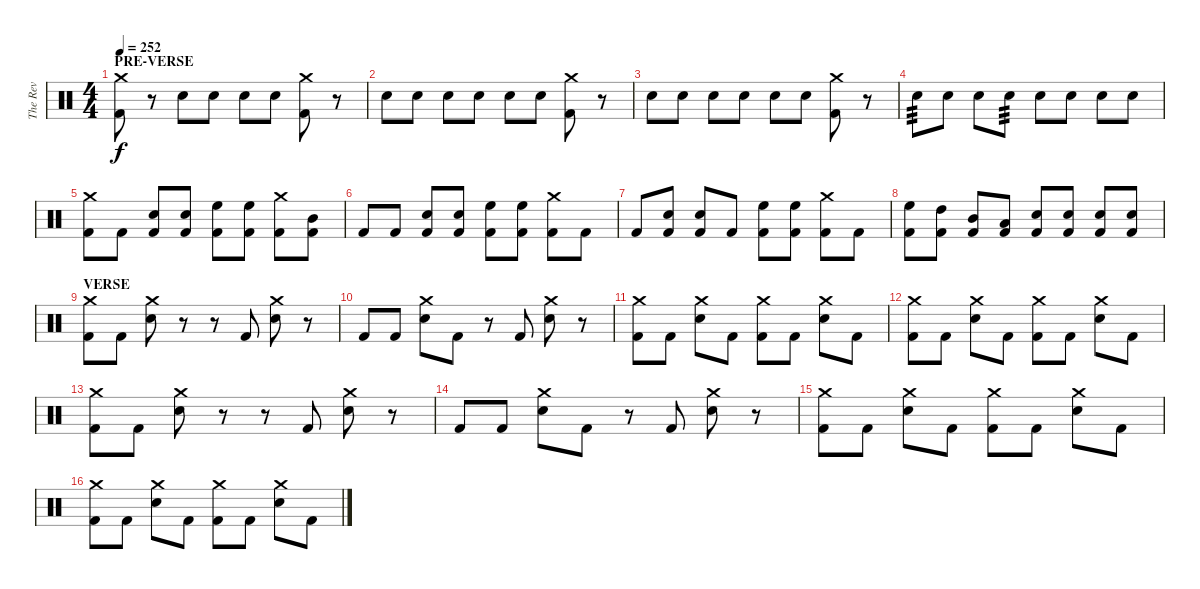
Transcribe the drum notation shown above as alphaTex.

\track ("The Rev" "The Rev") {instrument percussion}
\staff {score}
\articulation defaults
\ts (4 4)
\section ("" "PRE-VERSE")
\tempo 252
\clef neutral
\ks c
("Crash medium (hit)" "Kick (hit) 2").8{dy f} r.8 "Electric Snare (hit)".8 "Electric Snare (hit)".8 "Electric Snare (hit)".8 "Electric Snare (hit)".8 ("Crash medium (hit)" "Kick (hit) 2").8 r.8 |
"Electric Snare (hit)".8 "Electric Snare (hit)".8 "Electric Snare (hit)".8 "Electric Snare (hit)".8 "Electric Snare (hit)".8 "Electric Snare (hit)".8 ("Crash medium (hit)" "Kick (hit) 2").8 r.8 |
"Electric Snare (hit)".8 "Electric Snare (hit)".8 "Electric Snare (hit)".8 "Electric Snare (hit)".8 "Electric Snare (hit)".8 "Electric Snare (hit)".8 ("Crash medium (hit)" "Kick (hit) 2").8 r.8 |
"Electric Snare (hit)".8{tp 3} "Electric Snare (hit)".8 "Electric Snare (hit)".8 "Electric Snare (hit)".8{tp 3} "Electric Snare (hit)".8 "Electric Snare (hit)".8 "Electric Snare (hit)".8 "Electric Snare (hit)".8 |
("Crash medium (hit)" "Kick (hit) 2").8 "Kick (hit) 2".8 ("Electric Snare (hit)" "Kick (hit) 2").8 ("Electric Snare (hit)" "Kick (hit) 2").8 ("High Floor Tom (hit)" "Kick (hit) 2").8 ("High Floor Tom (hit)" "Kick (hit) 2").8 ("Crash medium (hit)" "Kick (hit) 2").8 ("Mid Tom (hit)" "Kick (hit) 2").8 |
"Kick (hit) 2".8 "Kick (hit) 2".8 ("Electric Snare (hit)" "Kick (hit) 2").8 ("Electric Snare (hit)" "Kick (hit) 2").8 ("High Floor Tom (hit)" "Kick (hit) 2").8 ("High Floor Tom (hit)" "Kick (hit) 2").8 ("Crash medium (hit)" "Kick (hit) 2").8 "Kick (hit) 2".8 |
"Kick (hit) 2".8 ("Electric Snare (hit)" "Kick (hit) 2").8 ("Electric Snare (hit)" "Kick (hit) 2").8 "Kick (hit) 2".8 ("High Floor Tom (hit)" "Kick (hit) 2").8 ("High Floor Tom (hit)" "Kick (hit) 2").8 ("Crash medium (hit)" "Kick (hit) 2").8 "Kick (hit) 2".8 |
("High Floor Tom (hit)" "Kick (hit) 2").8 ("High Tom (hit)" "Kick (hit) 2").8 ("Mid Tom (hit)" "Kick (hit) 2").8 ("Low Tom (hit)" "Kick (hit) 2").8 ("Electric Snare (hit)" "Kick (hit) 2").8 ("Electric Snare (hit)" "Kick (hit) 2").8 ("Electric Snare (hit)" "Kick (hit) 2").8 ("Electric Snare (hit)" "Kick (hit) 2").8 |
\section ("" "VERSE")
("Crash medium (hit)" "Kick (hit) 2").8 "Kick (hit) 2".8 ("Crash medium (hit)" "Electric Snare (hit)").8 r.8 r.8 "Kick (hit) 2".8 ("Crash medium (hit)" "Electric Snare (hit)").8 r.8 |
"Kick (hit) 2".8 "Kick (hit) 2".8 ("Crash medium (hit)" "Electric Snare (hit)").8 "Kick (hit) 2".8 r.8 "Kick (hit) 2".8 ("Crash medium (hit)" "Electric Snare (hit)").8 r.8 |
("Crash medium (hit)" "Kick (hit) 2").8 "Kick (hit) 2".8 ("Crash medium (hit)" "Electric Snare (hit)").8 "Kick (hit) 2".8 ("Crash medium (hit)" "Kick (hit) 2").8 "Kick (hit) 2".8 ("Crash medium (hit)" "Electric Snare (hit)").8 "Kick (hit) 2".8 |
("Crash medium (hit)" "Kick (hit) 2").8 "Kick (hit) 2".8 ("Crash medium (hit)" "Electric Snare (hit)").8 "Kick (hit) 2".8 ("Crash medium (hit)" "Kick (hit) 2").8 "Kick (hit) 2".8 ("Crash medium (hit)" "Electric Snare (hit)").8 "Kick (hit) 2".8 |
("Crash medium (hit)" "Kick (hit) 2").8 "Kick (hit) 2".8 ("Crash medium (hit)" "Electric Snare (hit)").8 r.8 r.8 "Kick (hit) 2".8 ("Crash medium (hit)" "Electric Snare (hit)").8 r.8 |
"Kick (hit) 2".8 "Kick (hit) 2".8 ("Crash medium (hit)" "Electric Snare (hit)").8 "Kick (hit) 2".8 r.8 "Kick (hit) 2".8 ("Crash medium (hit)" "Electric Snare (hit)").8 r.8 |
("Crash medium (hit)" "Kick (hit) 2").8 "Kick (hit) 2".8 ("Crash medium (hit)" "Electric Snare (hit)").8 "Kick (hit) 2".8 ("Crash medium (hit)" "Kick (hit) 2").8 "Kick (hit) 2".8 ("Crash medium (hit)" "Electric Snare (hit)").8 "Kick (hit) 2".8 |
("Crash medium (hit)" "Kick (hit) 2").8 "Kick (hit) 2".8 ("Crash medium (hit)" "Electric Snare (hit)").8 "Kick (hit) 2".8 ("Crash medium (hit)" "Kick (hit) 2").8 "Kick (hit) 2".8 ("Crash medium (hit)" "Electric Snare (hit)").8 "Kick (hit) 2".8
